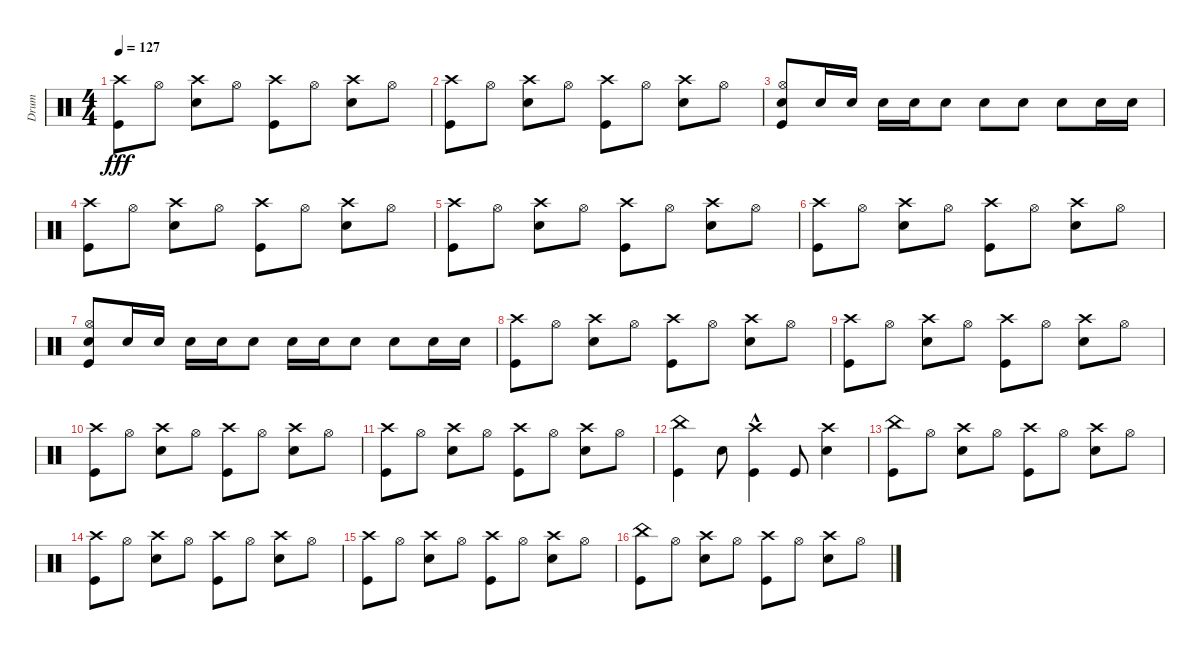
\track ("Drum" "Drum") {instrument percussion}
\staff {score}
\articulation defaults
\ts (4 4)
\tempo 127
\clef neutral
\ks c
("Kick (hit)" "Crash high (hit)").8{dy fff} "Hi-Hat (open)".8 ("Crash high (hit)" "Electric Snare (hit)").8 "Hi-Hat (open)".8 ("Kick (hit)" "Crash high (hit)").8 "Hi-Hat (open)".8 ("Crash high (hit)" "Electric Snare (hit)").8 "Hi-Hat (open)".8 |
("Kick (hit)" "Crash high (hit)").8 "Hi-Hat (open)".8 ("Crash high (hit)" "Electric Snare (hit)").8 "Hi-Hat (open)".8 ("Kick (hit)" "Crash high (hit)").8 "Hi-Hat (open)".8 ("Crash high (hit)" "Electric Snare (hit)").8 "Hi-Hat (open)".8 |
("Electric Snare (hit)" "Kick (hit)" "Hi-Hat (open)").8 "Electric Snare (hit)".16 "Electric Snare (hit)".16 "Electric Snare (hit)".16 "Electric Snare (hit)".16 "Electric Snare (hit)".8 "Electric Snare (hit)".8 "Electric Snare (hit)".8 "Electric Snare (hit)".8 "Electric Snare (hit)".16 "Electric Snare (hit)".16 |
("Kick (hit)" "Crash high (hit)").8 "Hi-Hat (open)".8 ("Crash high (hit)" "Electric Snare (hit)").8 "Hi-Hat (open)".8 ("Kick (hit)" "Crash high (hit)").8 "Hi-Hat (open)".8 ("Crash high (hit)" "Electric Snare (hit)").8 "Hi-Hat (open)".8 |
("Kick (hit)" "Crash high (hit)").8 "Hi-Hat (open)".8 ("Crash high (hit)" "Electric Snare (hit)").8 "Hi-Hat (open)".8 ("Kick (hit)" "Crash high (hit)").8 "Hi-Hat (open)".8 ("Crash high (hit)" "Electric Snare (hit)").8 "Hi-Hat (open)".8 |
("Kick (hit)" "Crash high (hit)").8 "Hi-Hat (open)".8 ("Crash high (hit)" "Electric Snare (hit)").8 "Hi-Hat (open)".8 ("Kick (hit)" "Crash high (hit)").8 "Hi-Hat (open)".8 ("Crash high (hit)" "Electric Snare (hit)").8 "Hi-Hat (open)".8 |
("Electric Snare (hit)" "Kick (hit)" "Hi-Hat (open)").8 "Electric Snare (hit)".16 "Electric Snare (hit)".16 "Electric Snare (hit)".16 "Electric Snare (hit)".16 "Electric Snare (hit)".8 "Electric Snare (hit)".16 "Electric Snare (hit)".16 "Electric Snare (hit)".8 "Electric Snare (hit)".8 "Electric Snare (hit)".16 "Electric Snare (hit)".16 |
("Kick (hit)" "Crash high (hit)").8 "Hi-Hat (open)".8 ("Crash high (hit)" "Electric Snare (hit)").8 "Hi-Hat (open)".8 ("Kick (hit)" "Crash high (hit)").8 "Hi-Hat (open)".8 ("Crash high (hit)" "Electric Snare (hit)").8 "Hi-Hat (open)".8 |
("Kick (hit)" "Crash high (hit)").8 "Hi-Hat (open)".8 ("Crash high (hit)" "Electric Snare (hit)").8 "Hi-Hat (open)".8 ("Kick (hit)" "Crash high (hit)").8 "Hi-Hat (open)".8 ("Crash high (hit)" "Electric Snare (hit)").8 "Hi-Hat (open)".8 |
("Kick (hit)" "Crash high (hit)").8 "Hi-Hat (open)".8 ("Crash high (hit)" "Electric Snare (hit)").8 "Hi-Hat (open)".8 ("Kick (hit)" "Crash high (hit)").8 "Hi-Hat (open)".8 ("Crash high (hit)" "Electric Snare (hit)").8 "Hi-Hat (open)".8 |
("Kick (hit)" "Crash high (hit)").8 "Hi-Hat (open)".8 ("Crash high (hit)" "Electric Snare (hit)").8 "Hi-Hat (open)".8 ("Kick (hit)" "Crash high (hit)").8 "Hi-Hat (open)".8 ("Crash high (hit)" "Electric Snare (hit)").8 "Hi-Hat (open)".8 |
("Kick (hit)" "China (hit)").4 "Electric Snare (hit)".8 ("Crash high (hit)"{hac} "Kick (hit)").4 "Kick (hit)".8 ("Crash high (hit)" "Electric Snare (hit)").4 |
("Kick (hit)" "China (hit)").8 "Hi-Hat (open)".8 ("Crash high (hit)" "Electric Snare (hit)").8 "Hi-Hat (open)".8 ("Kick (hit)" "Crash high (hit)").8 "Hi-Hat (open)".8 ("Crash high (hit)" "Electric Snare (hit)").8 "Hi-Hat (open)".8 |
("Kick (hit)" "Crash high (hit)").8 "Hi-Hat (open)".8 ("Crash high (hit)" "Electric Snare (hit)").8 "Hi-Hat (open)".8 ("Kick (hit)" "Crash high (hit)").8 "Hi-Hat (open)".8 ("Crash high (hit)" "Electric Snare (hit)").8 "Hi-Hat (open)".8 |
("Kick (hit)" "Crash high (hit)").8 "Hi-Hat (open)".8 ("Crash high (hit)" "Electric Snare (hit)").8 "Hi-Hat (open)".8 ("Kick (hit)" "Crash high (hit)").8 "Hi-Hat (open)".8 ("Crash high (hit)" "Electric Snare (hit)").8 "Hi-Hat (open)".8 |
("Kick (hit)" "China (hit)").8 "Hi-Hat (open)".8 ("Crash high (hit)" "Electric Snare (hit)").8 "Hi-Hat (open)".8 ("Kick (hit)" "Crash high (hit)").8 "Hi-Hat (open)".8 ("Crash high (hit)" "Electric Snare (hit)").8 "Hi-Hat (open)".8
